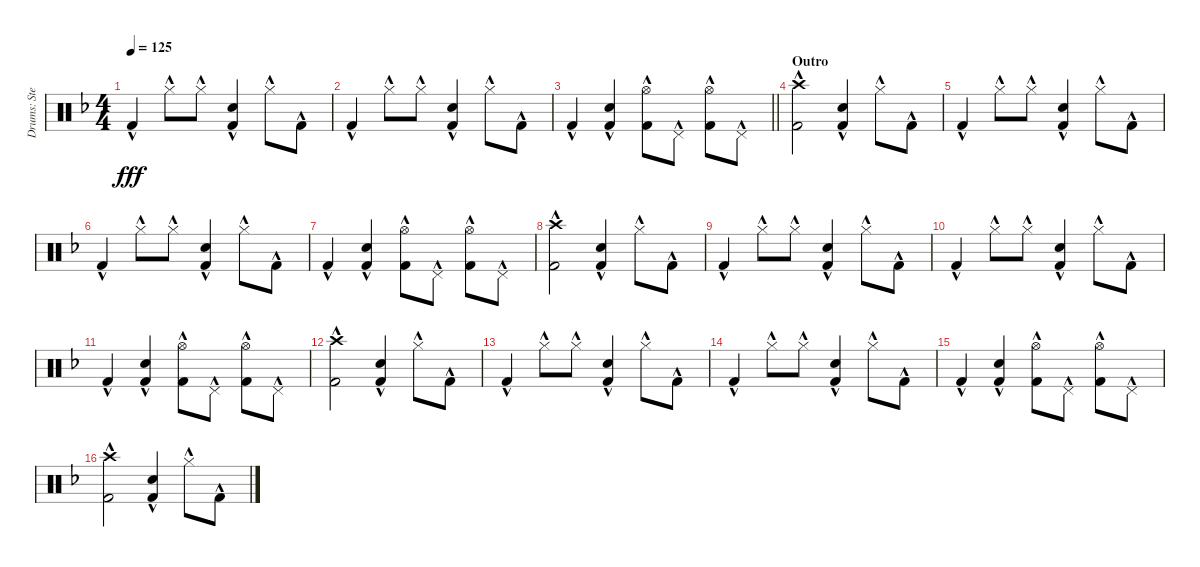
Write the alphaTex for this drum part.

\track ("Drums: Steve" "Drums: Ste") {instrument percussion}
\staff {score}
\articulation defaults
\ts (4 4)
\tempo 125
\clef neutral
\ks f "Kick (hit) 2"{hac}.4{dy fff} "Hi-Hat (closed)"{hac}.8 "Hi-Hat (closed)"{hac}.8
("Electric Snare (hit)"{hac} "Kick (hit) 2"{hac}).4 "Hi-Hat (closed)"{hac}.8 "Kick (hit) 2"{hac}.8 |
"Kick (hit) 2"{hac}.4 "Hi-Hat (closed)"{hac}.8 "Hi-Hat (closed)"{hac}.8 ("Electric Snare (hit)"{hac} "Kick (hit) 2"{hac}).4 "Hi-Hat (closed)"{hac}.8 "Kick (hit) 2"{hac}.8 |
\barLineRight lightlight "Kick (hit) 2"{hac}.4
("Electric Snare (hit)"{hac} "Kick (hit) 2"{hac}).4 ("Hi-Hat (open)"{hac} "Kick (hit) 2"{hac}).8 "Pedal Hi-Hat (hit)"{hac}.8 ("Hi-Hat (open)"{hac} "Kick (hit) 2"{hac}).8 "Pedal Hi-Hat (hit)"{hac}.8 |
\section ("" "Outro")
("Crash high (hit)"{hac} "Kick (hit) 2"{hac}).2 ("Electric Snare (hit)"{hac} "Kick (hit) 2"{hac}).4 "Hi-Hat (closed)"{hac}.8 "Kick (hit) 2"{hac}.8 |
"Kick (hit) 2"{hac}.4 "Hi-Hat (closed)"{hac}.8 "Hi-Hat (closed)"{hac}.8 ("Electric Snare (hit)"{hac} "Kick (hit) 2"{hac}).4 "Hi-Hat (closed)"{hac}.8 "Kick (hit) 2"{hac}.8 |
"Kick (hit) 2"{hac}.4 "Hi-Hat (closed)"{hac}.8 "Hi-Hat (closed)"{hac}.8 ("Electric Snare (hit)"{hac} "Kick (hit) 2"{hac}).4 "Hi-Hat (closed)"{hac}.8 "Kick (hit) 2"{hac}.8 |
"Kick (hit) 2"{hac}.4 ("Electric Snare (hit)"{hac} "Kick (hit) 2"{hac}).4 ("Hi-Hat (open)"{hac} "Kick (hit) 2"{hac}).8 "Pedal Hi-Hat (hit)"{hac}.8 ("Hi-Hat (open)"{hac} "Kick (hit) 2"{hac}).8 "Pedal Hi-Hat (hit)"{hac}.8 |
("Crash high (hit)"{hac} "Kick (hit) 2"{hac}).2 ("Electric Snare (hit)"{hac} "Kick (hit) 2"{hac}).4 "Hi-Hat (closed)"{hac}.8 "Kick (hit) 2"{hac}.8 |
"Kick (hit) 2"{hac}.4 "Hi-Hat (closed)"{hac}.8 "Hi-Hat (closed)"{hac}.8 ("Electric Snare (hit)"{hac} "Kick (hit) 2"{hac}).4 "Hi-Hat (closed)"{hac}.8 "Kick (hit) 2"{hac}.8 |
"Kick (hit) 2"{hac}.4 "Hi-Hat (closed)"{hac}.8 "Hi-Hat (closed)"{hac}.8 ("Electric Snare (hit)"{hac} "Kick (hit) 2"{hac}).4 "Hi-Hat (closed)"{hac}.8 "Kick (hit) 2"{hac}.8 |
"Kick (hit) 2"{hac}.4 ("Electric Snare (hit)"{hac} "Kick (hit) 2"{hac}).4 ("Hi-Hat (open)"{hac} "Kick (hit) 2"{hac}).8 "Pedal Hi-Hat (hit)"{hac}.8 ("Hi-Hat (open)"{hac} "Kick (hit) 2"{hac}).8 "Pedal Hi-Hat (hit)"{hac}.8 |
("Crash high (hit)"{hac} "Kick (hit) 2"{hac}).2 ("Electric Snare (hit)"{hac} "Kick (hit) 2"{hac}).4 "Hi-Hat (closed)"{hac}.8 "Kick (hit) 2"{hac}.8 |
"Kick (hit) 2"{hac}.4 "Hi-Hat (closed)"{hac}.8 "Hi-Hat (closed)"{hac}.8 ("Electric Snare (hit)"{hac} "Kick (hit) 2"{hac}).4 "Hi-Hat (closed)"{hac}.8 "Kick (hit) 2"{hac}.8 |
"Kick (hit) 2"{hac}.4 "Hi-Hat (closed)"{hac}.8 "Hi-Hat (closed)"{hac}.8 ("Electric Snare (hit)"{hac} "Kick (hit) 2"{hac}).4 "Hi-Hat (closed)"{hac}.8 "Kick (hit) 2"{hac}.8 |
"Kick (hit) 2"{hac}.4 ("Electric Snare (hit)"{hac} "Kick (hit) 2"{hac}).4 ("Hi-Hat (open)"{hac} "Kick (hit) 2"{hac}).8 "Pedal Hi-Hat (hit)"{hac}.8 ("Hi-Hat (open)"{hac} "Kick (hit) 2"{hac}).8 "Pedal Hi-Hat (hit)"{hac}.8 |
("Crash high (hit)"{hac} "Kick (hit) 2"{hac}).2 ("Electric Snare (hit)"{hac} "Kick (hit) 2"{hac}).4 "Hi-Hat (closed)"{hac}.8 "Kick (hit) 2"{hac}.8
